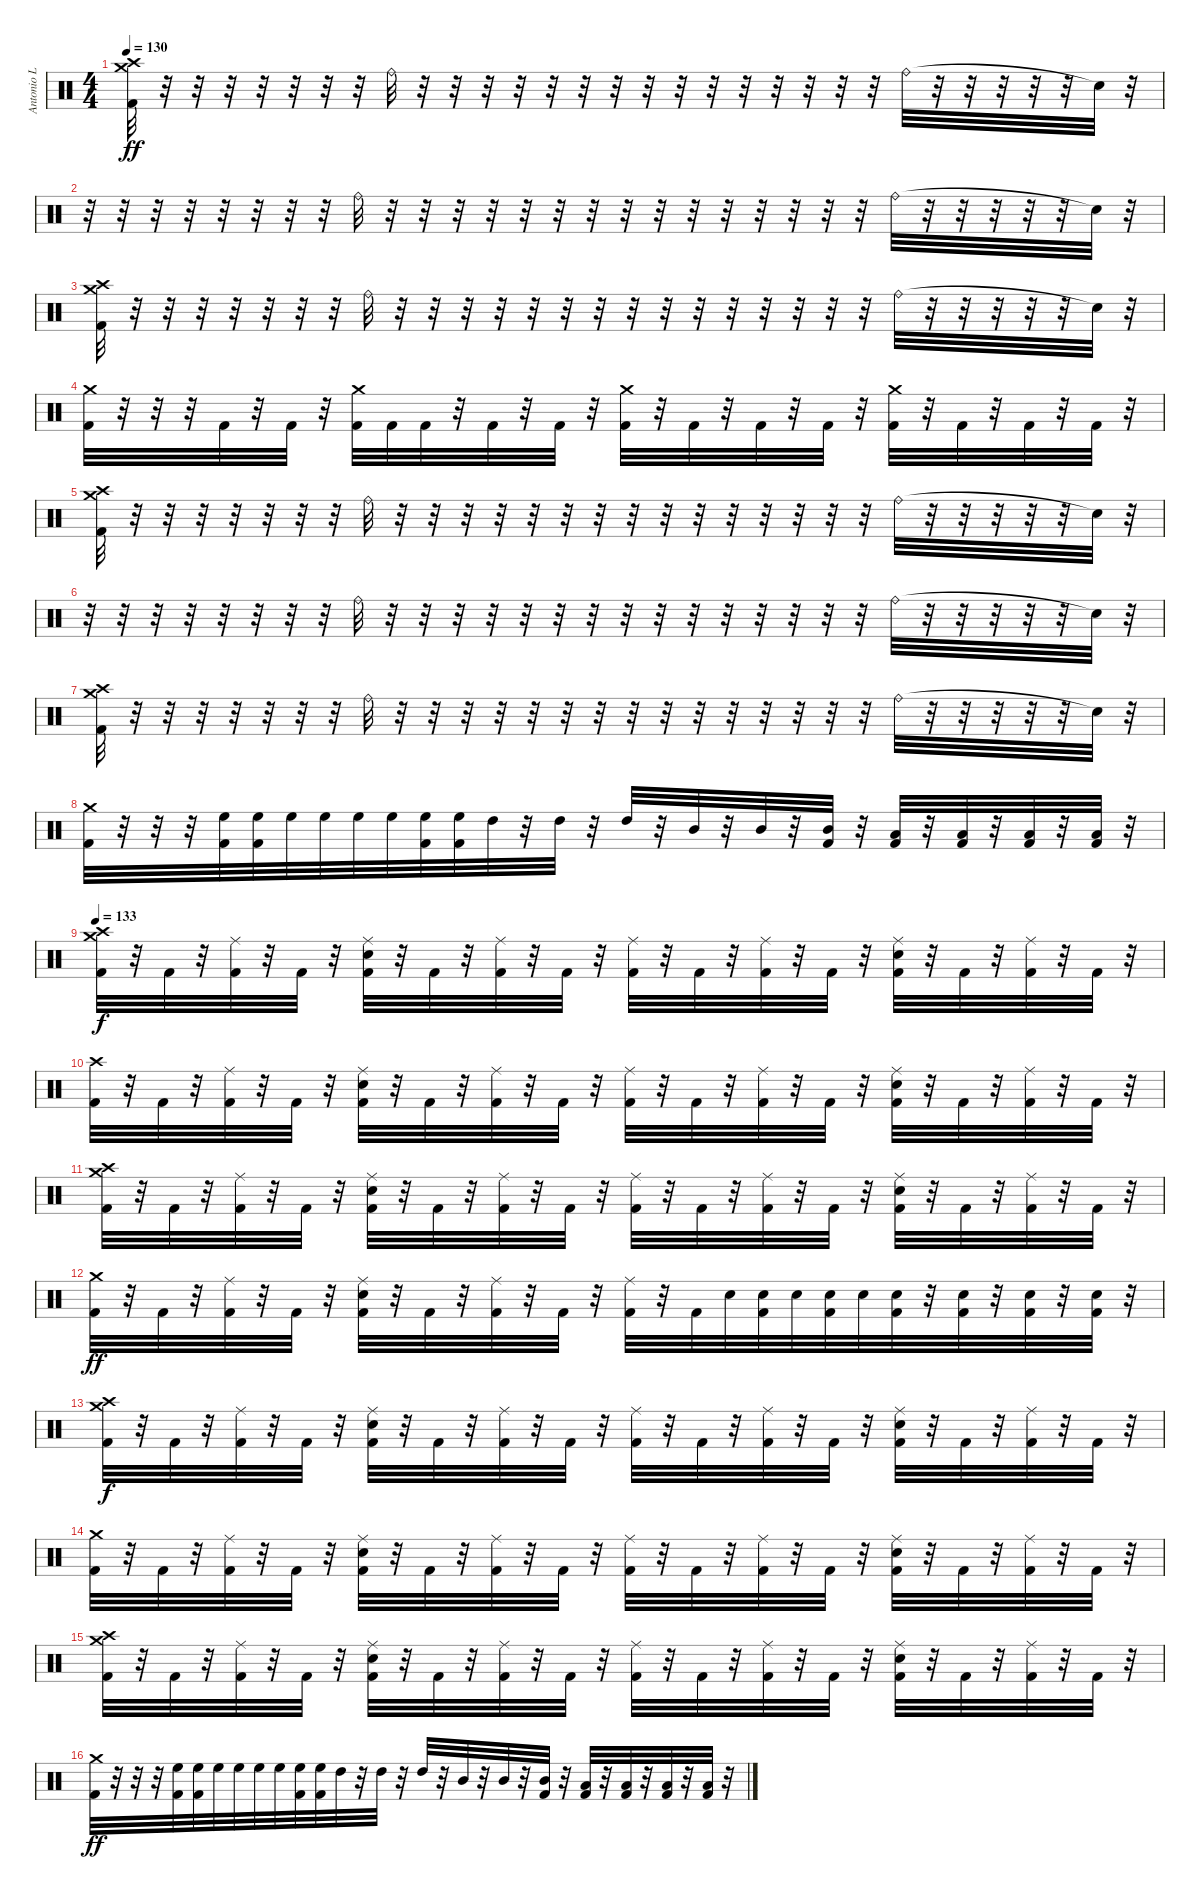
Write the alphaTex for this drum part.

\track ("Antonio L" "Antonio L") {instrument percussion}
\staff {score}
\articulation defaults
\ts (4 4)
\tempo 130
\clef neutral
\ks c
("Crash medium (hit)" "Crash high (hit)" "Kick (hit) 2").32{dy ff} r.32 r.32 r.32 r.32 r.32 r.32 r.32 "Ride (bell)".32 r.32 r.32 r.32 r.32 r.32 r.32 r.32 r.32 r.32 r.32 r.32 r.32 r.32 r.32 r.32 "Ride (bell)".32 r.32 r.32 r.32 r.32 r.32 "Electric Snare (hit)"{t}.32 r.32 |
r.32 r.32 r.32 r.32 r.32 r.32 r.32 r.32 "Ride (bell)".32 r.32 r.32 r.32 r.32 r.32 r.32 r.32 r.32 r.32 r.32 r.32 r.32 r.32 r.32 r.32 "Ride (bell)".32 r.32 r.32 r.32 r.32 r.32 "Electric Snare (hit)"{t}.32 r.32 |
("Crash high (hit)" "Crash medium (hit)" "Kick (hit) 2").32 r.32 r.32 r.32 r.32 r.32 r.32 r.32 "Ride (bell)".32 r.32 r.32 r.32 r.32 r.32 r.32 r.32 r.32 r.32 r.32 r.32 r.32 r.32 r.32 r.32 "Ride (bell)".32 r.32 r.32 r.32 r.32 r.32 "Electric Snare (hit)"{t}.32 r.32 |
("Crash medium (hit)" "Kick (hit) 2").32 r.32 r.32 r.32 "Kick (hit) 2".32 r.32 "Kick (hit) 2".32 r.32 ("Crash medium (hit)" "Kick (hit) 2").32 "Kick (hit) 2".32 "Kick (hit) 2".32 r.32 "Kick (hit) 2".32 r.32 "Kick (hit) 2".32 r.32 ("Crash medium (hit)" "Kick (hit) 2").32 r.32 "Kick (hit) 2".32 r.32 "Kick (hit) 2".32 r.32 "Kick (hit) 2".32 r.32 ("Crash medium (hit)" "Kick (hit) 2").32 r.32 "Kick (hit) 2".32 r.32 "Kick (hit) 2".32 r.32 "Kick (hit) 2".32 r.32 |
("Crash medium (hit)" "Crash high (hit)" "Kick (hit) 2").32 r.32 r.32 r.32 r.32 r.32 r.32 r.32 "Ride (bell)".32 r.32 r.32 r.32 r.32 r.32 r.32 r.32 r.32 r.32 r.32 r.32 r.32 r.32 r.32 r.32 "Ride (bell)".32 r.32 r.32 r.32 r.32 r.32 "Electric Snare (hit)"{t}.32 r.32 |
r.32 r.32 r.32 r.32 r.32 r.32 r.32 r.32 "Ride (bell)".32 r.32 r.32 r.32 r.32 r.32 r.32 r.32 r.32 r.32 r.32 r.32 r.32 r.32 r.32 r.32 "Ride (bell)".32 r.32 r.32 r.32 r.32 r.32 "Electric Snare (hit)"{t}.32 r.32 |
("Crash high (hit)" "Crash medium (hit)" "Kick (hit) 2").32 r.32 r.32 r.32 r.32 r.32 r.32 r.32 "Ride (bell)".32 r.32 r.32 r.32 r.32 r.32 r.32 r.32 r.32 r.32 r.32 r.32 r.32 r.32 r.32 r.32 "Ride (bell)".32 r.32 r.32 r.32 r.32 r.32 "Electric Snare (hit)"{t}.32 r.32 |
("Crash medium (hit)" "Kick (hit) 2").32 r.32 r.32 r.32 ("High Floor Tom (hit)" "Kick (hit) 2").32 ("High Floor Tom (hit)" "Kick (hit) 2").32 "High Floor Tom (hit)".32 "High Floor Tom (hit)".32{beam merge} "High Floor Tom (hit)".32 "High Floor Tom (hit)".32 ("High Floor Tom (hit)" "Kick (hit) 2").32 ("High Floor Tom (hit)" "Kick (hit) 2").32 "High Tom (hit)".32 r.32 "High Tom (hit)".32 r.32 "High Tom (hit)".32 r.32 "Mid Tom (hit)".32 r.32 "Mid Tom (hit)".32 r.32 ("Mid Tom (hit)" "Kick (hit) 2").32 r.32 ("Low Tom (hit)" "Kick (hit) 2").32 r.32 ("Low Tom (hit)" "Kick (hit) 2").32 r.32 ("Low Tom (hit)" "Kick (hit) 2").32 r.32 ("Low Tom (hit)" "Kick (hit) 2").32 r.32 |
\tempo 133
("Crash high (hit)" "Crash medium (hit)" "Kick (hit) 2").32{dy f} r.32 "Kick (hit) 2".32 r.32 ("Ride (middle)" "Kick (hit) 2").32 r.32 "Kick (hit) 2".32 r.32 ("Ride (middle)" "Electric Snare (hit)" "Kick (hit) 2").32 r.32 "Kick (hit) 2".32 r.32 ("Ride (middle)" "Kick (hit) 2").32 r.32 "Kick (hit) 2".32 r.32 ("Ride (middle)" "Kick (hit) 2").32 r.32 "Kick (hit) 2".32 r.32 ("Ride (middle)" "Kick (hit) 2").32 r.32 "Kick (hit) 2".32 r.32 ("Ride (middle)" "Electric Snare (hit)" "Kick (hit) 2").32 r.32 "Kick (hit) 2".32 r.32 ("Ride (middle)" "Kick (hit) 2").32 r.32 "Kick (hit) 2".32 r.32 |
("Crash high (hit)" "Kick (hit) 2").32 r.32 "Kick (hit) 2".32 r.32 ("Ride (middle)" "Kick (hit) 2").32 r.32 "Kick (hit) 2".32 r.32 ("Ride (middle)" "Electric Snare (hit)" "Kick (hit) 2").32 r.32 "Kick (hit) 2".32 r.32 ("Ride (middle)" "Kick (hit) 2").32 r.32 "Kick (hit) 2".32 r.32 ("Ride (middle)" "Kick (hit) 2").32 r.32 "Kick (hit) 2".32 r.32 ("Ride (middle)" "Kick (hit) 2").32 r.32 "Kick (hit) 2".32 r.32 ("Ride (middle)" "Electric Snare (hit)" "Kick (hit) 2").32 r.32 "Kick (hit) 2".32 r.32 ("Ride (middle)" "Kick (hit) 2").32 r.32 "Kick (hit) 2".32 r.32 |
("Crash high (hit)" "Crash medium (hit)" "Kick (hit) 2").32 r.32 "Kick (hit) 2".32 r.32 ("Ride (middle)" "Kick (hit) 2").32 r.32 "Kick (hit) 2".32 r.32 ("Ride (middle)" "Electric Snare (hit)" "Kick (hit) 2").32 r.32 "Kick (hit) 2".32 r.32 ("Ride (middle)" "Kick (hit) 2").32 r.32 "Kick (hit) 2".32 r.32 ("Ride (middle)" "Kick (hit) 2").32 r.32 "Kick (hit) 2".32 r.32 ("Ride (middle)" "Kick (hit) 2").32 r.32 "Kick (hit) 2".32 r.32 ("Ride (middle)" "Electric Snare (hit)" "Kick (hit) 2").32 r.32 "Kick (hit) 2".32 r.32 ("Ride (middle)" "Kick (hit) 2").32 r.32 "Kick (hit) 2".32 r.32 |
("Crash medium (hit)" "Kick (hit) 2").32{dy ff} r.32 "Kick (hit) 2".32 r.32 ("Ride (middle)" "Kick (hit) 2").32 r.32 "Kick (hit) 2".32 r.32 ("Ride (middle)" "Electric Snare (hit)" "Kick (hit) 2").32 r.32 "Kick (hit) 2".32 r.32 ("Ride (middle)" "Kick (hit) 2").32 r.32 "Kick (hit) 2".32 r.32 ("Ride (middle)" "Kick (hit) 2").32 r.32 "Kick (hit) 2".32 "Electric Snare (hit)".32 ("Electric Snare (hit)" "Kick (hit) 2").32 "Electric Snare (hit)".32 ("Electric Snare (hit)" "Kick (hit) 2").32 "Electric Snare (hit)".32{beam merge} ("Electric Snare (hit)" "Kick (hit) 2").32 r.32 ("Electric Snare (hit)" "Kick (hit) 2").32 r.32 ("Electric Snare (hit)" "Kick (hit) 2").32 r.32 ("Electric Snare (hit)" "Kick (hit) 2").32 r.32 |
("Crash high (hit)" "Crash medium (hit)" "Kick (hit) 2").32{dy f} r.32 "Kick (hit) 2".32 r.32 ("Ride (middle)" "Kick (hit) 2").32 r.32 "Kick (hit) 2".32 r.32 ("Ride (middle)" "Electric Snare (hit)" "Kick (hit) 2").32 r.32 "Kick (hit) 2".32 r.32 ("Ride (middle)" "Kick (hit) 2").32 r.32 "Kick (hit) 2".32 r.32 ("Ride (middle)" "Kick (hit) 2").32 r.32 "Kick (hit) 2".32 r.32 ("Ride (middle)" "Kick (hit) 2").32 r.32 "Kick (hit) 2".32 r.32 ("Ride (middle)" "Electric Snare (hit)" "Kick (hit) 2").32 r.32 "Kick (hit) 2".32 r.32 ("Ride (middle)" "Kick (hit) 2").32 r.32 "Kick (hit) 2".32 r.32 |
("Crash medium (hit)" "Kick (hit) 2").32 r.32 "Kick (hit) 2".32 r.32 ("Ride (middle)" "Kick (hit) 2").32 r.32 "Kick (hit) 2".32 r.32 ("Ride (middle)" "Electric Snare (hit)" "Kick (hit) 2").32 r.32 "Kick (hit) 2".32 r.32 ("Ride (middle)" "Kick (hit) 2").32 r.32 "Kick (hit) 2".32 r.32 ("Ride (middle)" "Kick (hit) 2").32 r.32 "Kick (hit) 2".32 r.32 ("Ride (middle)" "Kick (hit) 2").32 r.32 "Kick (hit) 2".32 r.32 ("Ride (middle)" "Electric Snare (hit)" "Kick (hit) 2").32 r.32 "Kick (hit) 2".32 r.32 ("Ride (middle)" "Kick (hit) 2").32 r.32 "Kick (hit) 2".32 r.32 |
("Crash high (hit)" "Crash medium (hit)" "Kick (hit) 2").32 r.32 "Kick (hit) 2".32 r.32 ("Ride (middle)" "Kick (hit) 2").32 r.32 "Kick (hit) 2".32 r.32 ("Ride (middle)" "Electric Snare (hit)" "Kick (hit) 2").32 r.32 "Kick (hit) 2".32 r.32 ("Ride (middle)" "Kick (hit) 2").32 r.32 "Kick (hit) 2".32 r.32 ("Ride (middle)" "Kick (hit) 2").32 r.32 "Kick (hit) 2".32 r.32 ("Ride (middle)" "Kick (hit) 2").32 r.32 "Kick (hit) 2".32 r.32 ("Ride (middle)" "Electric Snare (hit)" "Kick (hit) 2").32 r.32 "Kick (hit) 2".32 r.32 ("Ride (middle)" "Kick (hit) 2").32 r.32 "Kick (hit) 2".32 r.32 |
("Crash medium (hit)" "Kick (hit) 2").32{dy ff} r.32 r.32 r.32 ("High Floor Tom (hit)" "Kick (hit) 2").32 ("High Floor Tom (hit)" "Kick (hit) 2").32 "High Floor Tom (hit)".32 "High Floor Tom (hit)".32{beam merge} "High Floor Tom (hit)".32 "High Floor Tom (hit)".32 ("High Floor Tom (hit)" "Kick (hit) 2").32 ("High Floor Tom (hit)" "Kick (hit) 2").32 "High Tom (hit)".32 r.32 "High Tom (hit)".32 r.32 "High Tom (hit)".32 r.32 "Mid Tom (hit)".32 r.32 "Mid Tom (hit)".32 r.32 ("Mid Tom (hit)" "Kick (hit) 2").32 r.32 ("Low Tom (hit)" "Kick (hit) 2").32 r.32 ("Low Tom (hit)" "Kick (hit) 2").32 r.32 ("Low Tom (hit)" "Kick (hit) 2").32 r.32 ("Low Tom (hit)" "Kick (hit) 2").32 r.32
